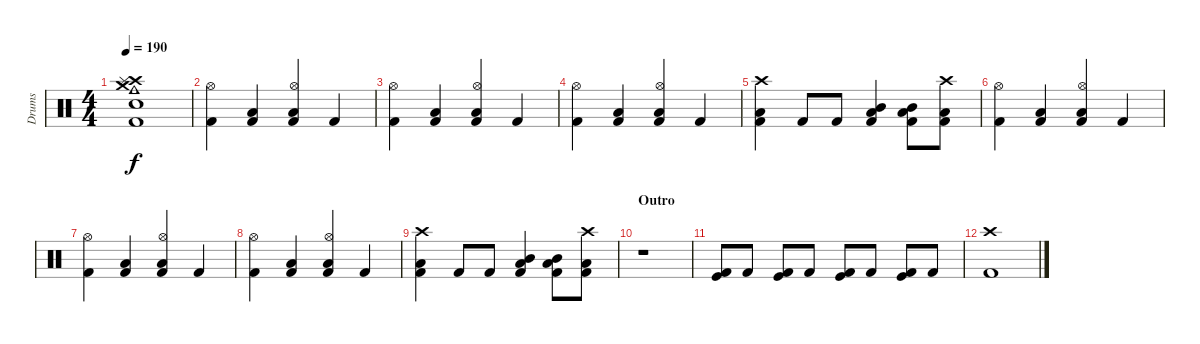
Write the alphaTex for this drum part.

\track ("Drums" "Drums") {instrument percussion}
\staff {score}
\articulation defaults
\ts (4 4)
\tempo 190
\clef neutral
\ks c
("Crash high (hit)" "Cowbell medium (hit)" "Splash (hit)" "Crash medium (hit)" "Snare (hit) 2" "Kick (hit) 2").1{dy f} |
("Hi-Hat (open)" "Kick (hit) 2").4 ("Low Floor Tom (hit)" "Kick (hit) 2").4 ("Hi-Hat (open)" "Low Floor Tom (hit)" "Kick (hit) 2").4 "Kick (hit) 2".4 |
("Hi-Hat (open)" "Kick (hit) 2").4 ("Low Floor Tom (hit)" "Kick (hit) 2").4 ("Hi-Hat (open)" "Low Floor Tom (hit)" "Kick (hit) 2").4 "Kick (hit) 2".4 |
("Hi-Hat (open)" "Kick (hit) 2").4 ("Low Floor Tom (hit)" "Kick (hit) 2").4 ("Hi-Hat (open)" "Low Floor Tom (hit)" "Kick (hit) 2").4 "Kick (hit) 2".4 |
("Crash high (hit)" "Low Floor Tom (hit)" "Kick (hit) 2").4 "Kick (hit) 2".8 "Kick (hit) 2".8 ("Mid Tom (hit)" "Low Floor Tom (hit)" "Kick (hit) 2").4 ("Mid Tom (hit)" "Low Floor Tom (hit)" "Kick (hit) 2").8 ("Crash high (hit)" "Low Floor Tom (hit)" "Kick (hit) 2").8 |
("Hi-Hat (open)" "Kick (hit) 2").4 ("Low Floor Tom (hit)" "Kick (hit) 2").4 ("Hi-Hat (open)" "Low Floor Tom (hit)" "Kick (hit) 2").4 "Kick (hit) 2".4 |
("Hi-Hat (open)" "Kick (hit) 2").4 ("Low Floor Tom (hit)" "Kick (hit) 2").4 ("Hi-Hat (open)" "Low Floor Tom (hit)" "Kick (hit) 2").4 "Kick (hit) 2".4 |
("Hi-Hat (open)" "Kick (hit) 2").4 ("Low Floor Tom (hit)" "Kick (hit) 2").4 ("Hi-Hat (open)" "Low Floor Tom (hit)" "Kick (hit) 2").4 "Kick (hit) 2".4 |
("Crash high (hit)" "Low Floor Tom (hit)" "Kick (hit) 2").4 "Kick (hit) 2".8 "Kick (hit) 2".8 ("Mid Tom (hit)" "Low Floor Tom (hit)" "Kick (hit) 2").4 ("Mid Tom (hit)" "Low Floor Tom (hit)" "Kick (hit) 2").8 ("Crash high (hit)" "Low Floor Tom (hit)" "Kick (hit) 2").8 |
\section ("" "Outro")
r.1 |
("Kick (hit)" "Kick (hit) 2").8 "Kick (hit) 2".8 ("Kick (hit)" "Kick (hit) 2").8 "Kick (hit) 2".8 ("Kick (hit)" "Kick (hit) 2").8 "Kick (hit) 2".8 ("Kick (hit)" "Kick (hit) 2").8 "Kick (hit) 2".8 |
("Crash high (hit)" "Kick (hit) 2").1
